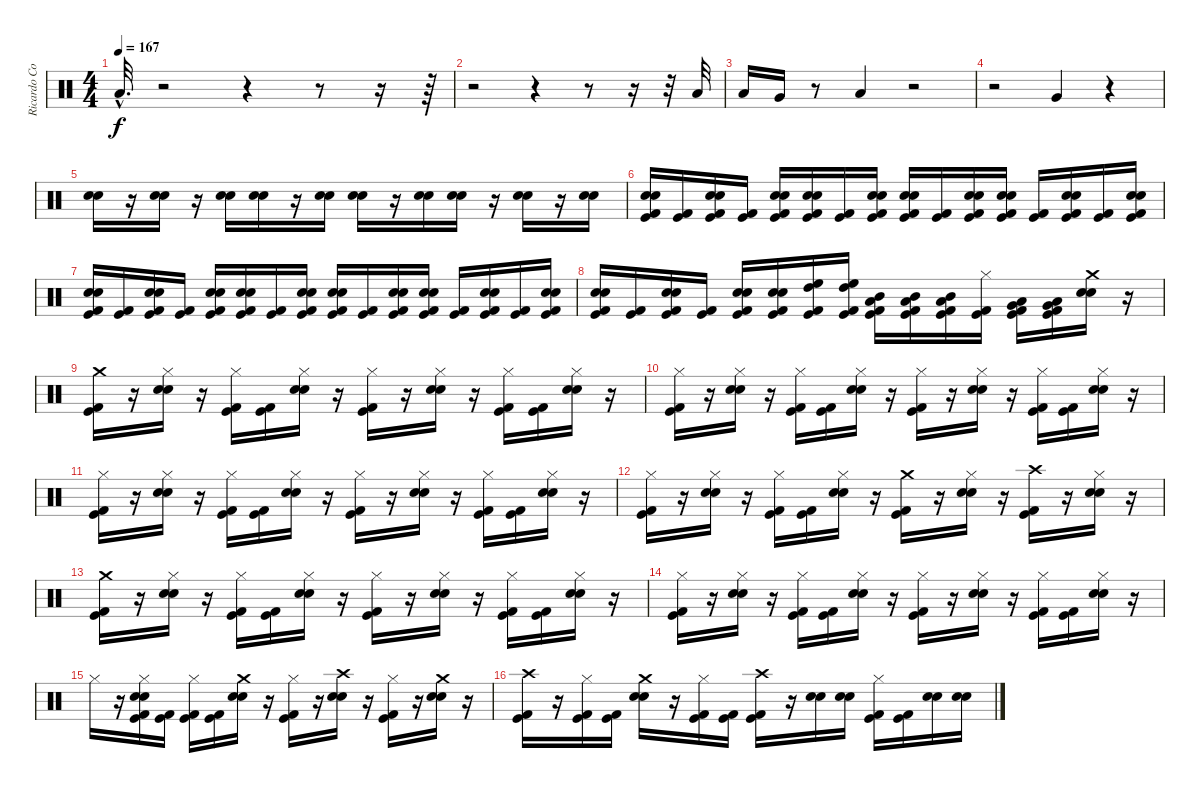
\track ("Ricardo Confessori" "Ricardo Co") {instrument percussion}
\staff {score}
\articulation defaults
\ts (4 4)
\tempo 167
\clef neutral
\ks c "Low Tom (hit)"{hac}.32{d dy f}
r.2 r.4 r.8 r.16 r.64 |
r.2 r.4 r.8 r.16 r.32 "Low Tom (hit)".32 |
"Low Tom (hit)".16 "Very Low Tom (hit)".16 r.8 "Low Tom (hit)".4 r.2 |
r.2 "Very Low Tom (hit)".4 r.4 |
("Electric Snare (hit)" "Snare (hit) 2").16 r.16 ("Electric Snare (hit)" "Snare (hit) 2").16 r.16 ("Electric Snare (hit)" "Snare (hit) 2").16 ("Electric Snare (hit)" "Snare (hit) 2").16 r.16 ("Electric Snare (hit)" "Snare (hit) 2").16 ("Electric Snare (hit)" "Snare (hit) 2").16 r.16 ("Electric Snare (hit)" "Snare (hit) 2").16 ("Electric Snare (hit)" "Snare (hit) 2").16 r.16 ("Electric Snare (hit)" "Snare (hit) 2").16 r.16 ("Electric Snare (hit)" "Snare (hit) 2").16 |
("Kick (hit) 2" "Kick (hit)" "Electric Snare (hit)" "Snare (hit) 2").16 ("Kick (hit) 2" "Kick (hit)").16 ("Kick (hit) 2" "Kick (hit)" "Electric Snare (hit)" "Snare (hit) 2").16 ("Kick (hit) 2" "Kick (hit)").16 ("Kick (hit) 2" "Kick (hit)" "Electric Snare (hit)" "Snare (hit) 2").16 ("Kick (hit) 2" "Kick (hit)" "Electric Snare (hit)" "Snare (hit) 2").16 ("Kick (hit) 2" "Kick (hit)").16 ("Kick (hit) 2" "Kick (hit)" "Electric Snare (hit)" "Snare (hit) 2").16 ("Kick (hit) 2" "Kick (hit)" "Electric Snare (hit)" "Snare (hit) 2").16 ("Kick (hit) 2" "Kick (hit)").16 ("Kick (hit) 2" "Kick (hit)" "Electric Snare (hit)" "Snare (hit) 2").16 ("Kick (hit) 2" "Kick (hit)" "Electric Snare (hit)" "Snare (hit) 2").16 ("Kick (hit) 2" "Kick (hit)").16 ("Kick (hit) 2" "Kick (hit)" "Electric Snare (hit)" "Snare (hit) 2").16 ("Kick (hit) 2" "Kick (hit)").16 ("Kick (hit) 2" "Kick (hit)" "Electric Snare (hit)" "Snare (hit) 2").16 |
("Kick (hit) 2" "Kick (hit)" "Electric Snare (hit)" "Snare (hit) 2").16 ("Kick (hit) 2" "Kick (hit)").16 ("Kick (hit) 2" "Kick (hit)" "Electric Snare (hit)" "Snare (hit) 2").16 ("Kick (hit) 2" "Kick (hit)").16 ("Kick (hit) 2" "Kick (hit)" "Electric Snare (hit)" "Snare (hit) 2").16 ("Kick (hit) 2" "Kick (hit)" "Electric Snare (hit)" "Snare (hit) 2").16 ("Kick (hit) 2" "Kick (hit)").16 ("Kick (hit) 2" "Kick (hit)" "Electric Snare (hit)" "Snare (hit) 2").16 ("Kick (hit) 2" "Kick (hit)" "Electric Snare (hit)" "Snare (hit) 2").16 ("Kick (hit) 2" "Kick (hit)").16 ("Kick (hit) 2" "Kick (hit)" "Electric Snare (hit)" "Snare (hit) 2").16 ("Kick (hit) 2" "Kick (hit)" "Electric Snare (hit)" "Snare (hit) 2").16 ("Kick (hit) 2" "Kick (hit)").16 ("Snare (hit) 2" "Electric Snare (hit)" "Kick (hit) 2" "Kick (hit)").16 ("Kick (hit) 2" "Kick (hit)").16 ("Kick (hit) 2" "Kick (hit)" "Electric Snare (hit)" "Snare (hit) 2").16 |
("Kick (hit) 2" "Kick (hit)" "Electric Snare (hit)" "Snare (hit) 2").16 ("Kick (hit) 2" "Kick (hit)").16 ("Kick (hit) 2" "Kick (hit)" "Electric Snare (hit)" "Snare (hit) 2").16 ("Kick (hit) 2" "Kick (hit)").16 ("Kick (hit) 2" "Kick (hit)" "Electric Snare (hit)" "Snare (hit) 2").16 ("Kick (hit) 2" "Kick (hit)" "Electric Snare (hit)" "Snare (hit) 2").16 ("Kick (hit) 2" "Kick (hit)" "High Tom (hit)" "High Floor Tom (hit)").16 ("Kick (hit) 2" "Kick (hit)" "High Tom (hit)" "High Floor Tom (hit)").16 ("Kick (hit) 2" "Kick (hit)" "Low Tom (hit)" "Mid Tom (hit)").16 ("Kick (hit) 2" "Kick (hit)" "Low Tom (hit)" "Mid Tom (hit)").16 ("Kick (hit) 2" "Kick (hit)" "Low Tom (hit)" "Mid Tom (hit)").16 ("Kick (hit) 2" "Kick (hit)" "Hi-Hat (closed)").16 ("Kick (hit) 2" "Kick (hit)" "Very Low Tom (hit)" "Low Tom (hit)").16 ("Kick (hit) 2" "Kick (hit)" "Very Low Tom (hit)" "Low Tom (hit)").16 ("Electric Snare (hit)" "Snare (hit) 2" "Crash medium (hit)").16 r.16 |
("Crash medium (hit)" "Kick (hit) 2" "Kick (hit)").16 r.16 ("Hi-Hat (closed)" "Electric Snare (hit)" "Snare (hit) 2").16 r.16 ("Kick (hit) 2" "Kick (hit)" "Hi-Hat (closed)").16 ("Kick (hit) 2" "Kick (hit)").16 ("Electric Snare (hit)" "Snare (hit) 2" "Hi-Hat (closed)").16 r.16 ("Kick (hit) 2" "Kick (hit)" "Hi-Hat (closed)").16 r.16 ("Electric Snare (hit)" "Snare (hit) 2" "Hi-Hat (closed)").16 r.16 ("Kick (hit) 2" "Kick (hit)" "Hi-Hat (closed)").16 ("Kick (hit) 2" "Kick (hit)").16 ("Electric Snare (hit)" "Snare (hit) 2" "Hi-Hat (closed)").16 r.16 |
("Hi-Hat (closed)" "Kick (hit) 2" "Kick (hit)").16 r.16 ("Hi-Hat (closed)" "Electric Snare (hit)" "Snare (hit) 2").16 r.16 ("Kick (hit) 2" "Kick (hit)" "Hi-Hat (closed)").16 ("Kick (hit) 2" "Kick (hit)").16 ("Electric Snare (hit)" "Snare (hit) 2" "Hi-Hat (closed)").16 r.16 ("Kick (hit) 2" "Kick (hit)" "Hi-Hat (closed)").16 r.16 ("Electric Snare (hit)" "Snare (hit) 2" "Hi-Hat (closed)").16 r.16 ("Kick (hit) 2" "Kick (hit)" "Hi-Hat (closed)").16 ("Kick (hit) 2" "Kick (hit)").16 ("Electric Snare (hit)" "Snare (hit) 2" "Hi-Hat (closed)").16 r.16 |
("Hi-Hat (closed)" "Kick (hit) 2" "Kick (hit)").16 r.16 ("Hi-Hat (closed)" "Electric Snare (hit)" "Snare (hit) 2").16 r.16 ("Kick (hit) 2" "Kick (hit)" "Hi-Hat (closed)").16 ("Kick (hit) 2" "Kick (hit)").16 ("Electric Snare (hit)" "Snare (hit) 2" "Hi-Hat (closed)").16 r.16 ("Kick (hit) 2" "Kick (hit)" "Hi-Hat (closed)").16 r.16 ("Electric Snare (hit)" "Snare (hit) 2" "Hi-Hat (closed)").16 r.16 ("Kick (hit) 2" "Kick (hit)" "Hi-Hat (closed)").16 ("Kick (hit) 2" "Kick (hit)").16 ("Electric Snare (hit)" "Snare (hit) 2" "Hi-Hat (closed)").16 r.16 |
("Hi-Hat (closed)" "Kick (hit) 2" "Kick (hit)").16 r.16 ("Hi-Hat (closed)" "Electric Snare (hit)" "Snare (hit) 2").16 r.16 ("Kick (hit) 2" "Kick (hit)" "Hi-Hat (closed)").16 ("Kick (hit) 2" "Kick (hit)").16 ("Electric Snare (hit)" "Snare (hit) 2" "Hi-Hat (closed)").16 r.16 ("Crash medium (hit)" "Kick (hit) 2" "Kick (hit)").16 r.16 ("Electric Snare (hit)" "Snare (hit) 2" "Hi-Hat (closed)").16 r.16 ("Crash high (hit)" "Kick (hit) 2" "Kick (hit)").16 r.16 ("Electric Snare (hit)" "Snare (hit) 2" "Hi-Hat (closed)").16 r.16 |
("Crash medium (hit)" "Kick (hit) 2" "Kick (hit)").16 r.16 ("Hi-Hat (closed)" "Electric Snare (hit)" "Snare (hit) 2").16 r.16 ("Kick (hit) 2" "Kick (hit)" "Hi-Hat (closed)").16 ("Kick (hit) 2" "Kick (hit)").16 ("Electric Snare (hit)" "Snare (hit) 2" "Hi-Hat (closed)").16 r.16 ("Kick (hit) 2" "Kick (hit)" "Hi-Hat (closed)").16 r.16 ("Electric Snare (hit)" "Snare (hit) 2" "Hi-Hat (closed)").16 r.16 ("Kick (hit) 2" "Kick (hit)" "Hi-Hat (closed)").16 ("Kick (hit) 2" "Kick (hit)").16 ("Electric Snare (hit)" "Snare (hit) 2" "Hi-Hat (closed)").16 r.16 |
("Hi-Hat (closed)" "Kick (hit) 2" "Kick (hit)").16 r.16 ("Hi-Hat (closed)" "Electric Snare (hit)" "Snare (hit) 2").16 r.16 ("Kick (hit) 2" "Kick (hit)" "Hi-Hat (closed)").16 ("Kick (hit) 2" "Kick (hit)").16 ("Electric Snare (hit)" "Snare (hit) 2" "Hi-Hat (closed)").16 r.16 ("Kick (hit) 2" "Kick (hit)" "Hi-Hat (closed)").16 r.16 ("Electric Snare (hit)" "Snare (hit) 2" "Hi-Hat (closed)").16 r.16 ("Kick (hit) 2" "Kick (hit)" "Hi-Hat (closed)").16 ("Kick (hit) 2" "Kick (hit)").16 ("Electric Snare (hit)" "Snare (hit) 2" "Hi-Hat (closed)").16 r.16 |
"Hi-Hat (closed)".16 r.16 ("Kick (hit) 2" "Kick (hit)" "Hi-Hat (closed)" "Electric Snare (hit)" "Snare (hit) 2").16 ("Kick (hit) 2" "Kick (hit)").16 ("Kick (hit) 2" "Kick (hit)" "Hi-Hat (closed)").16 ("Kick (hit) 2" "Kick (hit)").16 ("Crash medium (hit)" "Electric Snare (hit)" "Snare (hit) 2").16 r.16 ("Kick (hit) 2" "Kick (hit)" "Hi-Hat (closed)").16 r.16 ("Crash high (hit)" "Electric Snare (hit)" "Snare (hit) 2").16 r.16 ("Kick (hit) 2" "Kick (hit)" "Hi-Hat (closed)").16 r.16 ("Crash medium (hit)" "Electric Snare (hit)" "Snare (hit) 2").16 r.16 |
("Crash high (hit)" "Kick (hit) 2" "Kick (hit)").16 r.16 ("Kick (hit) 2" "Kick (hit)" "Hi-Hat (closed)").16 ("Kick (hit) 2" "Kick (hit)").16 ("Crash medium (hit)" "Electric Snare (hit)" "Snare (hit) 2").16 r.16 ("Kick (hit) 2" "Kick (hit)" "Hi-Hat (closed)").16 ("Kick (hit) 2" "Kick (hit)").16 ("Crash high (hit)" "Kick (hit) 2" "Kick (hit)").16 r.16 ("Electric Snare (hit)" "Snare (hit) 2").16 ("Electric Snare (hit)" "Snare (hit) 2").16 ("Hi-Hat (closed)" "Kick (hit) 2" "Kick (hit)").16 ("Kick (hit) 2" "Kick (hit)").16 ("Electric Snare (hit)" "Snare (hit) 2").16 ("Electric Snare (hit)" "Snare (hit) 2").16
